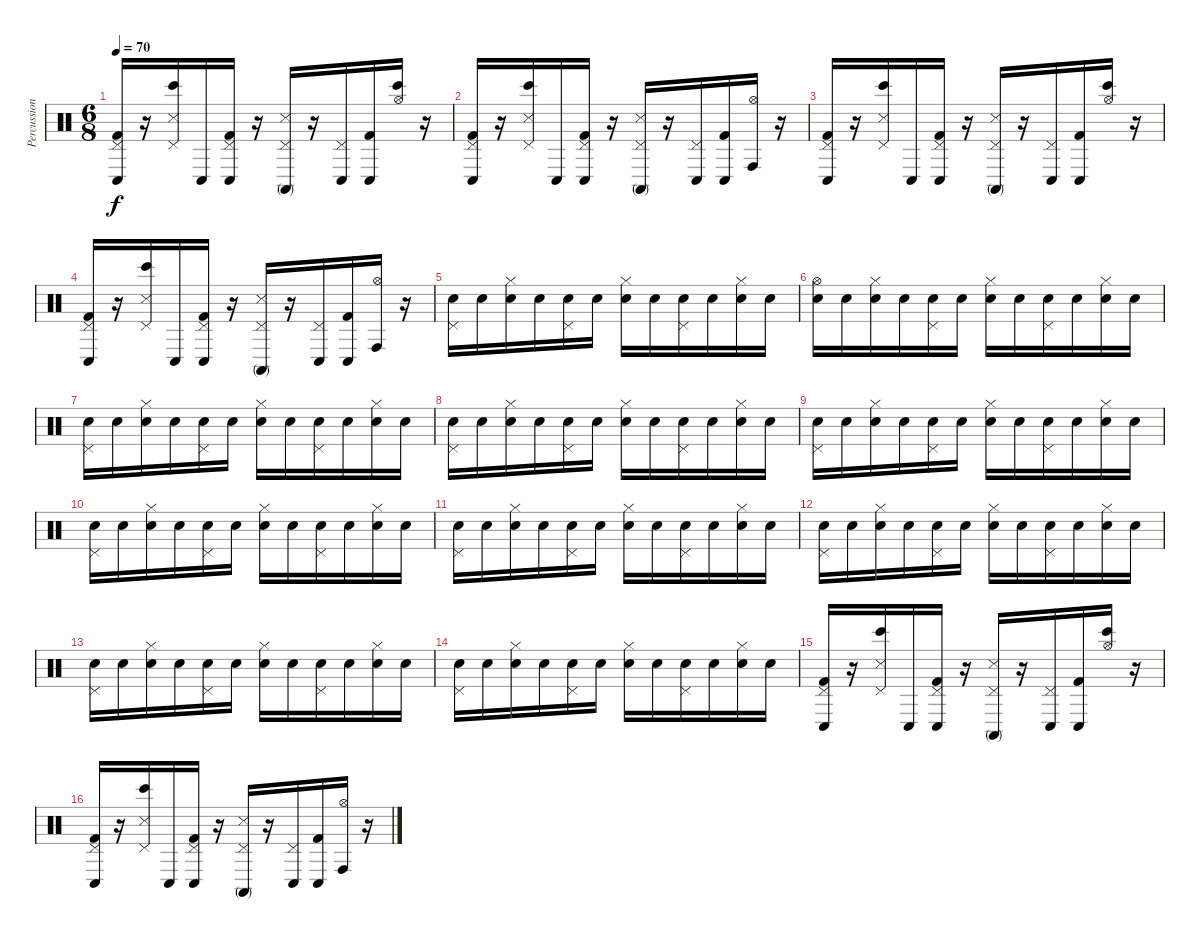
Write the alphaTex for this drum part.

\track ("Percussion" "Percussion") {instrument percussion}
\staff {score}
\articulation defaults
\ts (6 8)
\tempo 70
\clef neutral
\ks c
("Pedal Hi-Hat (hit)" "Conga low (hit)" "Kick (hit) 2").16{dy f} r.16 ("Pedal Hi-Hat (hit)" "Bongo High (hit)" "Snare (side stick) 3").16 "Conga low (hit)".16 ("Pedal Hi-Hat (hit)" "Conga low (hit)" "Kick (hit) 2").16 r.16 ("Pedal Hi-Hat (hit)" "Conga high (mute)" "Snare (side stick) 3").16 r.16 ("Pedal Hi-Hat (hit)" "Conga low (hit)").16 ("Conga low (hit)" "Kick (hit) 2").16 ("Hi-Hat (open)" "Bongo High (hit)").16 r.16 |
("Pedal Hi-Hat (hit)" "Conga low (hit)" "Kick (hit) 2").16 r.16 ("Pedal Hi-Hat (hit)" "Bongo High (hit)" "Snare (side stick) 3").16 "Conga low (hit)".16 ("Pedal Hi-Hat (hit)" "Conga low (hit)" "Kick (hit) 2").16 r.16 ("Pedal Hi-Hat (hit)" "Conga high (mute)" "Snare (side stick) 3").16 r.16 ("Pedal Hi-Hat (hit)" "Conga low (hit)").16 ("Conga low (hit)" "Kick (hit) 2").16 ("Hi-Hat (open)" "Conga high (hit)").16 r.16 |
("Pedal Hi-Hat (hit)" "Conga low (hit)" "Kick (hit) 2").16 r.16 ("Pedal Hi-Hat (hit)" "Bongo High (hit)" "Snare (side stick) 3").16 "Conga low (hit)".16 ("Pedal Hi-Hat (hit)" "Conga low (hit)" "Kick (hit) 2").16 r.16 ("Pedal Hi-Hat (hit)" "Conga high (mute)" "Snare (side stick) 3").16 r.16 ("Pedal Hi-Hat (hit)" "Conga low (hit)").16 ("Conga low (hit)" "Kick (hit) 2").16 ("Hi-Hat (open)" "Bongo High (hit)").16 r.16 |
("Pedal Hi-Hat (hit)" "Conga low (hit)" "Kick (hit) 2").16 r.16 ("Pedal Hi-Hat (hit)" "Bongo High (hit)" "Snare (side stick) 3").16 "Conga low (hit)".16 ("Pedal Hi-Hat (hit)" "Conga low (hit)" "Kick (hit) 2").16 r.16 ("Pedal Hi-Hat (hit)" "Conga high (mute)" "Snare (side stick) 3").16 r.16 ("Pedal Hi-Hat (hit)" "Conga low (hit)").16 ("Conga low (hit)" "Kick (hit) 2").16 ("Hi-Hat (open)" "Conga high (hit)").16 r.16 |
("Pedal Hi-Hat (hit)" "Snare (hit)").16 "Snare (hit)".16 ("Hi-Hat (closed)" "Snare (hit)").16 "Snare (hit)".16 ("Pedal Hi-Hat (hit)" "Snare (hit)").16 "Snare (hit)".16 ("Hi-Hat (closed)" "Snare (hit)").16 "Snare (hit)".16 ("Pedal Hi-Hat (hit)" "Snare (hit)").16 "Snare (hit)".16 ("Hi-Hat (closed)" "Snare (hit)").16 "Snare (hit)".16 |
("Hi-Hat (open)" "Snare (hit)").16 "Snare (hit)".16 ("Hi-Hat (closed)" "Snare (hit)").16 "Snare (hit)".16 ("Pedal Hi-Hat (hit)" "Snare (hit)").16 "Snare (hit)".16 ("Hi-Hat (closed)" "Snare (hit)").16 "Snare (hit)".16 ("Pedal Hi-Hat (hit)" "Snare (hit)").16 "Snare (hit)".16 ("Hi-Hat (closed)" "Snare (hit)").16 "Snare (hit)".16 |
("Pedal Hi-Hat (hit)" "Snare (hit)").16 "Snare (hit)".16 ("Hi-Hat (closed)" "Snare (hit)").16 "Snare (hit)".16 ("Pedal Hi-Hat (hit)" "Snare (hit)").16 "Snare (hit)".16 ("Hi-Hat (closed)" "Snare (hit)").16 "Snare (hit)".16 ("Pedal Hi-Hat (hit)" "Snare (hit)").16 "Snare (hit)".16 ("Hi-Hat (closed)" "Snare (hit)").16 "Snare (hit)".16 |
("Pedal Hi-Hat (hit)" "Snare (hit)").16 "Snare (hit)".16 ("Hi-Hat (closed)" "Snare (hit)").16 "Snare (hit)".16 ("Pedal Hi-Hat (hit)" "Snare (hit)").16 "Snare (hit)".16 ("Hi-Hat (closed)" "Snare (hit)").16 "Snare (hit)".16 ("Pedal Hi-Hat (hit)" "Snare (hit)").16 "Snare (hit)".16 ("Hi-Hat (closed)" "Snare (hit)").16 "Snare (hit)".16 |
("Pedal Hi-Hat (hit)" "Snare (hit)").16 "Snare (hit)".16 ("Hi-Hat (closed)" "Snare (hit)").16 "Snare (hit)".16 ("Pedal Hi-Hat (hit)" "Snare (hit)").16 "Snare (hit)".16 ("Hi-Hat (closed)" "Snare (hit)").16 "Snare (hit)".16 ("Pedal Hi-Hat (hit)" "Snare (hit)").16 "Snare (hit)".16 ("Hi-Hat (closed)" "Snare (hit)").16 "Snare (hit)".16 |
("Pedal Hi-Hat (hit)" "Snare (hit)").16 "Snare (hit)".16 ("Hi-Hat (closed)" "Snare (hit)").16 "Snare (hit)".16 ("Pedal Hi-Hat (hit)" "Snare (hit)").16 "Snare (hit)".16 ("Hi-Hat (closed)" "Snare (hit)").16 "Snare (hit)".16 ("Pedal Hi-Hat (hit)" "Snare (hit)").16 "Snare (hit)".16 ("Hi-Hat (closed)" "Snare (hit)").16 "Snare (hit)".16 |
("Pedal Hi-Hat (hit)" "Snare (hit)").16 "Snare (hit)".16 ("Hi-Hat (closed)" "Snare (hit)").16 "Snare (hit)".16 ("Pedal Hi-Hat (hit)" "Snare (hit)").16 "Snare (hit)".16 ("Hi-Hat (closed)" "Snare (hit)").16 "Snare (hit)".16 ("Pedal Hi-Hat (hit)" "Snare (hit)").16 "Snare (hit)".16 ("Hi-Hat (closed)" "Snare (hit)").16 "Snare (hit)".16 |
("Pedal Hi-Hat (hit)" "Snare (hit)").16 "Snare (hit)".16 ("Hi-Hat (closed)" "Snare (hit)").16 "Snare (hit)".16 ("Pedal Hi-Hat (hit)" "Snare (hit)").16 "Snare (hit)".16 ("Hi-Hat (closed)" "Snare (hit)").16 "Snare (hit)".16 ("Pedal Hi-Hat (hit)" "Snare (hit)").16 "Snare (hit)".16 ("Hi-Hat (closed)" "Snare (hit)").16 "Snare (hit)".16 |
("Pedal Hi-Hat (hit)" "Snare (hit)").16 "Snare (hit)".16 ("Hi-Hat (closed)" "Snare (hit)").16 "Snare (hit)".16 ("Pedal Hi-Hat (hit)" "Snare (hit)").16 "Snare (hit)".16 ("Hi-Hat (closed)" "Snare (hit)").16 "Snare (hit)".16 ("Pedal Hi-Hat (hit)" "Snare (hit)").16 "Snare (hit)".16 ("Hi-Hat (closed)" "Snare (hit)").16 "Snare (hit)".16 |
("Pedal Hi-Hat (hit)" "Snare (hit)").16 "Snare (hit)".16 ("Hi-Hat (closed)" "Snare (hit)").16 "Snare (hit)".16 ("Pedal Hi-Hat (hit)" "Snare (hit)").16 "Snare (hit)".16 ("Hi-Hat (closed)" "Snare (hit)").16 "Snare (hit)".16 ("Pedal Hi-Hat (hit)" "Snare (hit)").16 "Snare (hit)".16 ("Hi-Hat (closed)" "Snare (hit)").16 "Snare (hit)".16 |
("Pedal Hi-Hat (hit)" "Conga low (hit)" "Kick (hit) 2").16 r.16 ("Pedal Hi-Hat (hit)" "Bongo High (hit)" "Snare (side stick) 3").16 "Conga low (hit)".16 ("Pedal Hi-Hat (hit)" "Conga low (hit)" "Kick (hit) 2").16 r.16 ("Pedal Hi-Hat (hit)" "Conga high (mute)" "Snare (side stick) 3").16 r.16 ("Pedal Hi-Hat (hit)" "Conga low (hit)").16 ("Conga low (hit)" "Kick (hit) 2").16 ("Hi-Hat (open)" "Bongo High (hit)").16 r.16 |
("Pedal Hi-Hat (hit)" "Conga low (hit)" "Kick (hit) 2").16 r.16 ("Pedal Hi-Hat (hit)" "Bongo High (hit)" "Snare (side stick) 3").16 "Conga low (hit)".16 ("Pedal Hi-Hat (hit)" "Conga low (hit)" "Kick (hit) 2").16 r.16 ("Pedal Hi-Hat (hit)" "Conga high (mute)" "Snare (side stick) 3").16 r.16 ("Pedal Hi-Hat (hit)" "Conga low (hit)").16 ("Conga low (hit)" "Kick (hit) 2").16 ("Hi-Hat (open)" "Conga high (hit)").16 r.16
